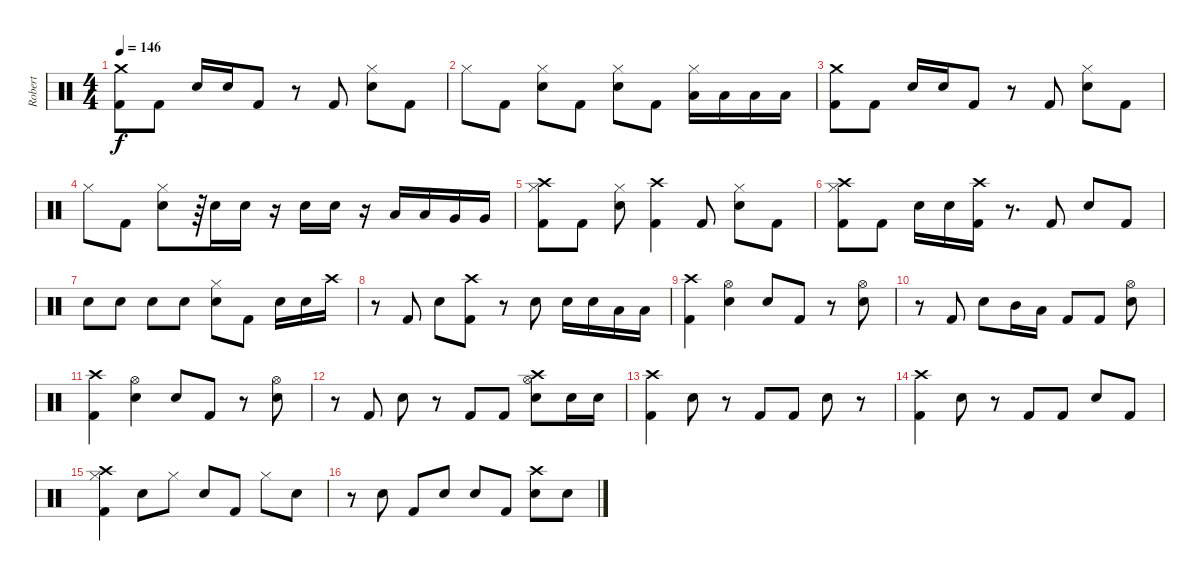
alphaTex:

\track ("Robert" "Robert") {instrument percussion}
\staff {score}
\articulation defaults
\ts (4 4)
\tempo 146
\clef neutral
\ks c
("Crash medium (hit)" "Kick (hit) 2").8{dy f} "Kick (hit) 2".8 "Electric Snare (hit)".16 "Electric Snare (hit)".16 "Kick (hit) 2".8 r.8 "Kick (hit) 2".8 ("Hi-Hat (closed)" "Electric Snare (hit)").8 "Kick (hit) 2".8 |
"Hi-Hat (closed)".8 "Kick (hit) 2".8 ("Hi-Hat (closed)" "Electric Snare (hit)").8 "Kick (hit) 2".8 ("Hi-Hat (closed)" "Electric Snare (hit)").8 "Kick (hit) 2".8 ("Hi-Hat (closed)" "Low Tom (hit)").16 "Low Tom (hit)".16 "Low Tom (hit)".16 "Low Tom (hit)".16 |
("Crash medium (hit)" "Kick (hit) 2").8 "Kick (hit) 2".8 "Electric Snare (hit)".16 "Electric Snare (hit)".16 "Kick (hit) 2".8 r.8 "Kick (hit) 2".8 ("Hi-Hat (closed)" "Electric Snare (hit)").8 "Kick (hit) 2".8 |
"Hi-Hat (closed)".8 "Kick (hit) 2".8 ("Hi-Hat (closed)" "Electric Snare (hit)").8 r.64 "Electric Snare (hit)".16 "Electric Snare (hit)".16 r.16 "Electric Snare (hit)".16 "Electric Snare (hit)".16 r.16 "Low Tom (hit)".16 "Low Tom (hit)".16 "Very Low Tom (hit)".16 "Very Low Tom (hit)".16 |
("Crash high (hit)" "Hi-Hat (closed)" "Kick (hit) 2").8 "Kick (hit) 2".8 ("Hi-Hat (closed)" "Electric Snare (hit)").8 ("Crash high (hit)" "Kick (hit) 2").4 "Kick (hit) 2".8 ("Hi-Hat (closed)" "Electric Snare (hit)").8 "Kick (hit) 2".8 |
("Crash high (hit)" "Hi-Hat (closed)" "Kick (hit) 2").8 "Kick (hit) 2".8 "Electric Snare (hit)".16 "Electric Snare (hit)".16 ("Crash high (hit)" "Kick (hit) 2").16 r.8{d} "Kick (hit) 2".8 "Electric Snare (hit)".8 "Kick (hit) 2".8 |
"Electric Snare (hit)".8 "Electric Snare (hit)".8 "Electric Snare (hit)".8 "Electric Snare (hit)".8 ("Hi-Hat (closed)" "Electric Snare (hit)").8 "Kick (hit) 2".8 "Electric Snare (hit)".16 "Electric Snare (hit)".16 "Crash high (hit)".16 |
r.8 "Kick (hit) 2".8 "Electric Snare (hit)".8 ("Crash high (hit)" "Kick (hit) 2").8 r.8 "Electric Snare (hit)".8 "Electric Snare (hit)".16 "Electric Snare (hit)".16 "Low Tom (hit)".16 "Low Tom (hit)".16 |
("Crash high (hit)" "Kick (hit) 2").4 ("Hi-Hat (open)" "Electric Snare (hit)").4 "Electric Snare (hit)".8 "Kick (hit) 2".8 r.8 ("Hi-Hat (open)" "Electric Snare (hit)").8 |
r.8 "Kick (hit) 2".8 "Electric Snare (hit)".8 "Mid Tom (hit)".16 "Low Tom (hit)".16 "Kick (hit) 2".8 "Kick (hit) 2".8 ("Hi-Hat (open)" "Electric Snare (hit)").8 |
("Crash high (hit)" "Kick (hit) 2").4 ("Hi-Hat (open)" "Electric Snare (hit)").4 "Electric Snare (hit)".8 "Kick (hit) 2".8 r.8 ("Hi-Hat (open)" "Electric Snare (hit)").8 |
r.8 "Kick (hit) 2".8 "Electric Snare (hit)".8 r.8 "Kick (hit) 2".8 "Kick (hit) 2".8 ("Crash high (hit)" "Hi-Hat (open)" "Electric Snare (hit)").8 "Electric Snare (hit)".16 "Electric Snare (hit)".16 |
("Crash high (hit)" "Kick (hit) 2").4 "Electric Snare (hit)".8 r.8 "Kick (hit) 2".8 "Kick (hit) 2".8 "Electric Snare (hit)".8 r.8 |
("Crash high (hit)" "Kick (hit) 2").4 "Electric Snare (hit)".8 r.8 "Kick (hit) 2".8 "Kick (hit) 2".8 "Electric Snare (hit)".8 "Kick (hit) 2".8 |
("Crash high (hit)" "Hi-Hat (closed)" "Kick (hit) 2").4 "Electric Snare (hit)".8 "Hi-Hat (closed)".8 "Electric Snare (hit)".8 "Kick (hit) 2".8 "Hi-Hat (closed)".8 "Electric Snare (hit)".8 |
r.8 "Electric Snare (hit)".8 "Kick (hit) 2".8 "Electric Snare (hit)".8 "Electric Snare (hit)".8 "Kick (hit) 2".8 ("Crash high (hit)" "Electric Snare (hit)").8 "Electric Snare (hit)".8
